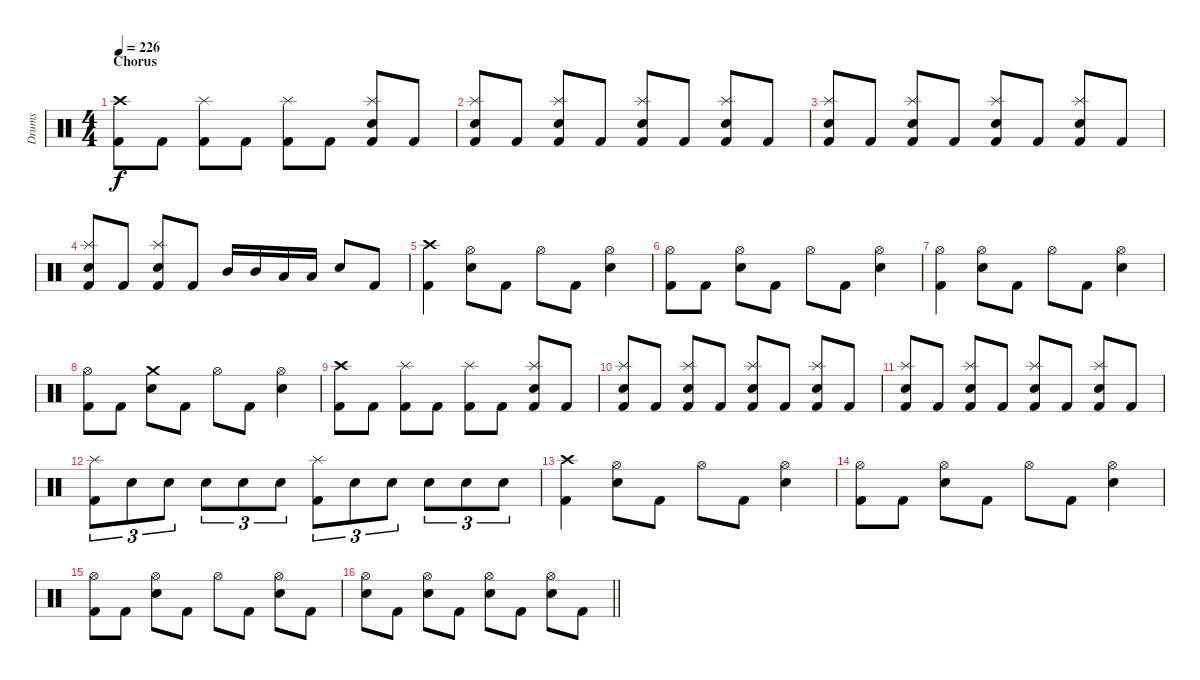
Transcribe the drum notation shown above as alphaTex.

\track ("Drums" "Drums") {instrument percussion}
\staff {score}
\articulation defaults
\ts (4 4)
\section ("" "Chorus")
\tempo 226
\clef neutral
\ks c
("Crash high (hit)" "Kick (hit) 2").8{dy f} "Kick (hit) 2".8 ("Splash (hit)" "Kick (hit) 2").8 "Kick (hit) 2".8 ("Splash (hit)" "Kick (hit) 2").8 "Kick (hit) 2".8 ("Splash (hit)" "Snare (hit) 2" "Kick (hit) 2").8 "Kick (hit) 2".8 |
("Splash (hit)" "Snare (hit) 2" "Kick (hit) 2").8 "Kick (hit) 2".8 ("Splash (hit)" "Snare (hit) 2" "Kick (hit) 2").8 "Kick (hit) 2".8 ("Splash (hit)" "Snare (hit) 2" "Kick (hit) 2").8 "Kick (hit) 2".8 ("Splash (hit)" "Snare (hit) 2" "Kick (hit) 2").8 "Kick (hit) 2".8 |
("Splash (hit)" "Snare (hit) 2" "Kick (hit) 2").8 "Kick (hit) 2".8 ("Splash (hit)" "Snare (hit) 2" "Kick (hit) 2").8 "Kick (hit) 2".8 ("Splash (hit)" "Snare (hit) 2" "Kick (hit) 2").8 "Kick (hit) 2".8 ("Splash (hit)" "Snare (hit) 2" "Kick (hit) 2").8 "Kick (hit) 2".8 |
("Splash (hit)" "Snare (hit) 2" "Kick (hit) 2").8 "Kick (hit) 2".8 ("Splash (hit)" "Snare (hit) 2" "Kick (hit) 2").8 "Kick (hit) 2".8 "Mid Tom (hit)".16 "Mid Tom (hit)".16 "Low Tom (hit)".16 "Low Tom (hit)".16 "Snare (hit) 2".8 "Kick (hit) 2".8 |
("Crash high (hit)" "Kick (hit) 2").4 ("Hi-Hat (open)" "Snare (hit) 2").8 "Kick (hit) 2".8 "Hi-Hat (open)".8 "Kick (hit) 2".8 ("Hi-Hat (open)" "Snare (hit) 2").4 |
("Hi-Hat (open)" "Kick (hit) 2").8 "Kick (hit) 2".8 ("Hi-Hat (open)" "Snare (hit) 2").8 "Kick (hit) 2".8 "Hi-Hat (open)".8 "Kick (hit) 2".8 ("Hi-Hat (open)" "Snare (hit) 2").4 |
("Hi-Hat (open)" "Kick (hit) 2").4 ("Hi-Hat (open)" "Snare (hit) 2").8 "Kick (hit) 2".8 "Hi-Hat (open)".8 "Kick (hit) 2".8 ("Hi-Hat (open)" "Snare (hit) 2").4 |
("Hi-Hat (open)" "Kick (hit) 2").8 "Kick (hit) 2".8 ("Crash medium (hit)" "Snare (hit) 2").8 "Kick (hit) 2".8 "Hi-Hat (open)".8 "Kick (hit) 2".8 ("Hi-Hat (open)" "Snare (hit) 2").4 |
("Crash high (hit)" "Kick (hit) 2").8 "Kick (hit) 2".8 ("Splash (hit)" "Kick (hit) 2").8 "Kick (hit) 2".8 ("Splash (hit)" "Kick (hit) 2").8 "Kick (hit) 2".8 ("Splash (hit)" "Snare (hit) 2" "Kick (hit) 2").8 "Kick (hit) 2".8 |
("Splash (hit)" "Snare (hit) 2" "Kick (hit) 2").8 "Kick (hit) 2".8 ("Splash (hit)" "Snare (hit) 2" "Kick (hit) 2").8 "Kick (hit) 2".8 ("Splash (hit)" "Snare (hit) 2" "Kick (hit) 2").8 "Kick (hit) 2".8 ("Splash (hit)" "Snare (hit) 2" "Kick (hit) 2").8 "Kick (hit) 2".8 |
("Splash (hit)" "Snare (hit) 2" "Kick (hit) 2").8 "Kick (hit) 2".8 ("Splash (hit)" "Snare (hit) 2" "Kick (hit) 2").8 "Kick (hit) 2".8 ("Splash (hit)" "Snare (hit) 2" "Kick (hit) 2").8 "Kick (hit) 2".8 ("Splash (hit)" "Snare (hit) 2" "Kick (hit) 2").8 "Kick (hit) 2".8 |
("Splash (hit)" "Kick (hit) 2").8{tu (3 2)} "Snare (hit) 2".8{tu (3 2)} "Snare (hit) 2".8{tu (3 2)} "Snare (hit) 2".8{tu (3 2)} "Snare (hit) 2".8{tu (3 2)} "Snare (hit) 2".8{tu (3 2)} ("Splash (hit)" "Kick (hit) 2").8{tu (3 2)} "Snare (hit) 2".8{tu (3 2)} "Snare (hit) 2".8{tu (3 2)} "Snare (hit) 2".8{tu (3 2)} "Snare (hit) 2".8{tu (3 2)} "Snare (hit) 2".8{tu (3 2)} |
("Crash high (hit)" "Kick (hit) 2").4 ("Hi-Hat (open)" "Snare (hit) 2").8 "Kick (hit) 2".8 "Hi-Hat (open)".8 "Kick (hit) 2".8 ("Hi-Hat (open)" "Snare (hit) 2").4 |
("Hi-Hat (open)" "Kick (hit) 2").8 "Kick (hit) 2".8 ("Hi-Hat (open)" "Snare (hit) 2").8 "Kick (hit) 2".8 "Hi-Hat (open)".8 "Kick (hit) 2".8 ("Hi-Hat (open)" "Snare (hit) 2").4 |
("Hi-Hat (open)" "Kick (hit) 2").8 "Kick (hit) 2".8 ("Hi-Hat (open)" "Snare (hit) 2").8 "Kick (hit) 2".8 "Hi-Hat (open)".8 "Kick (hit) 2".8 ("Hi-Hat (open)" "Snare (hit) 2").8 "Kick (hit) 2".8 |
\barLineRight lightlight
("Hi-Hat (open)" "Snare (hit) 2").8 "Kick (hit) 2".8 ("Hi-Hat (open)" "Snare (hit) 2").8 "Kick (hit) 2".8 ("Hi-Hat (open)" "Snare (hit) 2").8 "Kick (hit) 2".8 ("Hi-Hat (open)" "Snare (hit) 2").8 "Kick (hit) 2".8
